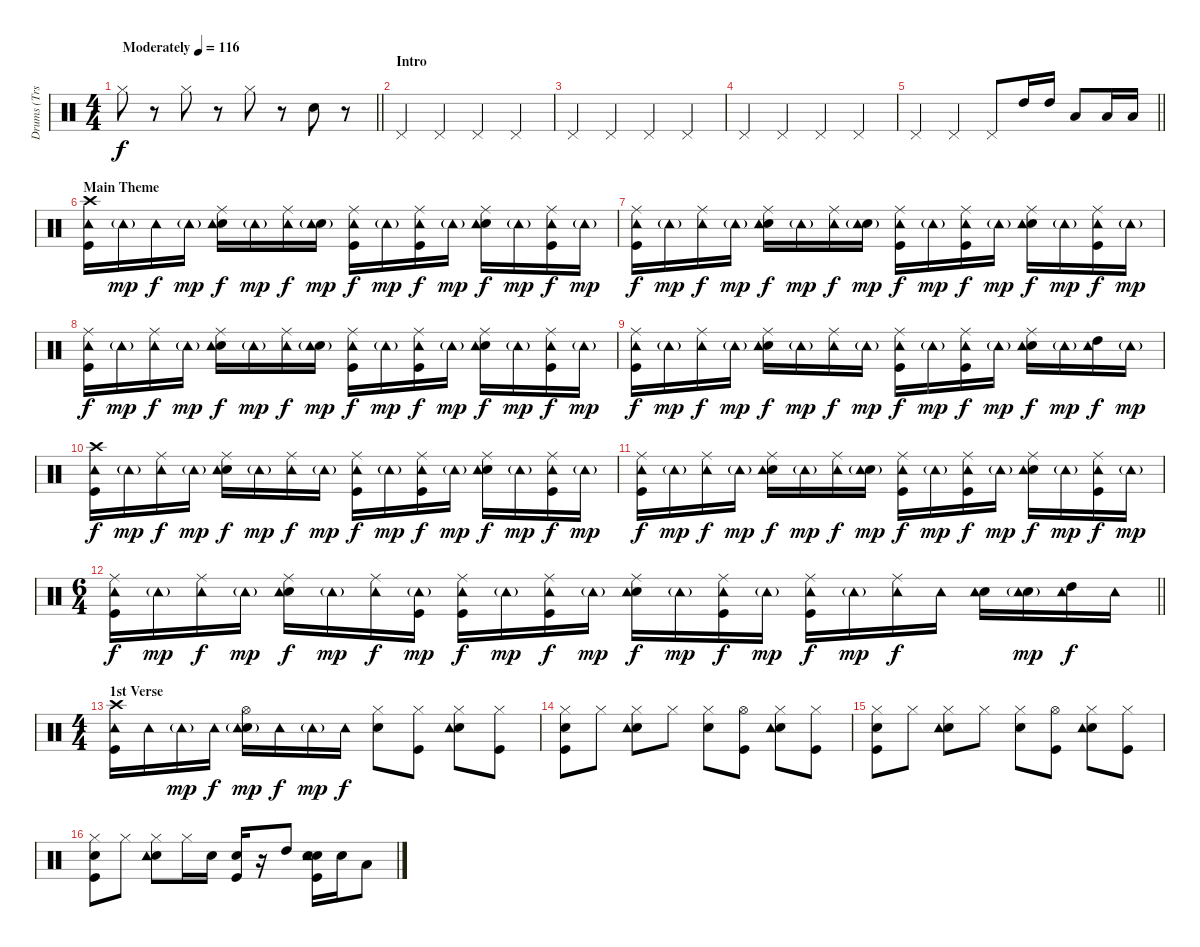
\track ("Drums (Trs. 7-8A, 10A/7-8B, 10B, 12-13B)" "Drums (Trs") {mute instrument percussion}
\staff {score}
\articulation defaults
\ts (4 4)
\tempo (116 "Moderately")
\clef neutral
\barLineRight lightlight
\ks c "Hi-Hat (closed)".8{dy f}
r.8 "Hi-Hat (closed)".8 r.8 "Hi-Hat (closed)".8 r.8 "Electric Snare (hit)".8 r.8 |
\section ("" "Intro")
"Pedal Hi-Hat (hit)".4 "Pedal Hi-Hat (hit)".4 "Pedal Hi-Hat (hit)".4 "Pedal Hi-Hat (hit)".4 |
"Pedal Hi-Hat (hit)".4 "Pedal Hi-Hat (hit)".4 "Pedal Hi-Hat (hit)".4 "Pedal Hi-Hat (hit)".4 |
"Pedal Hi-Hat (hit)".4 "Pedal Hi-Hat (hit)".4 "Pedal Hi-Hat (hit)".4 "Pedal Hi-Hat (hit)".4 |
\barLineRight lightlight "Pedal Hi-Hat (hit)".4 "Pedal Hi-Hat (hit)".4 "Pedal Hi-Hat (hit)".8 "High Tom (hit)".16 "High Tom (hit)".16 "Low Tom (hit)".8 "Low Tom (hit)".16 "Low Tom (hit)".16
|
\section ("" "Main Theme")
("Crash high (hit)" "Kick (hit)" "Tambourine (hit)").16 "Tambourine (hit)"{g}.16{dy mp} "Tambourine (hit)".16{dy f} "Tambourine (hit)"{g}.16{dy mp} ("Ride (middle)" "Electric Snare (hit)" "Tambourine (hit)").16{dy f} "Tambourine (hit)"{g}.16{dy mp} ("Ride (middle)" "Tambourine (hit)").16{dy f} ("Electric Snare (hit)" "Tambourine (hit)"{g}).16{dy mp} ("Kick (hit)" "Ride (middle)" "Tambourine (hit)").16{dy f} "Tambourine (hit)"{g}.16{dy mp} ("Ride (middle)" "Kick (hit)" "Tambourine (hit)").16{dy f} "Tambourine (hit)"{g}.16{dy mp} ("Electric Snare (hit)" "Ride (middle)" "Tambourine (hit)").16{dy f} "Tambourine (hit)"{g}.16{dy mp} ("Ride (middle)" "Kick (hit)" "Tambourine (hit)").16{dy f} "Tambourine (hit)"{g}.16{dy mp} |
("Kick (hit)" "Ride (middle)" "Tambourine (hit)").16{dy f} "Tambourine (hit)"{g}.16{dy mp} ("Ride (middle)" "Tambourine (hit)").16{dy f} "Tambourine (hit)"{g}.16{dy mp} ("Electric Snare (hit)" "Ride (middle)" "Tambourine (hit)").16{dy f} "Tambourine (hit)"{g}.16{dy mp} ("Ride (middle)" "Tambourine (hit)").16{dy f} ("Electric Snare (hit)" "Tambourine (hit)"{g}).16{dy mp} ("Kick (hit)" "Ride (middle)" "Tambourine (hit)").16{dy f} "Tambourine (hit)"{g}.16{dy mp} ("Ride (middle)" "Kick (hit)" "Tambourine (hit)").16{dy f} "Tambourine (hit)"{g}.16{dy mp} ("Ride (middle)" "Electric Snare (hit)" "Tambourine (hit)").16{dy f} "Tambourine (hit)"{g}.16{dy mp} ("Ride (middle)" "Kick (hit)" "Tambourine (hit)").16{dy f} "Tambourine (hit)"{g}.16{dy mp} |
("Ride (middle)" "Kick (hit)" "Tambourine (hit)").16{dy f} "Tambourine (hit)"{g}.16{dy mp} ("Ride (middle)" "Tambourine (hit)").16{dy f} "Tambourine (hit)"{g}.16{dy mp} ("Ride (middle)" "Electric Snare (hit)" "Tambourine (hit)").16{dy f} "Tambourine (hit)"{g}.16{dy mp} ("Ride (middle)" "Tambourine (hit)").16{dy f} ("Electric Snare (hit)" "Tambourine (hit)"{g}).16{dy mp} ("Ride (middle)" "Kick (hit)" "Tambourine (hit)").16{dy f} "Tambourine (hit)"{g}.16{dy mp} ("Ride (middle)" "Kick (hit)" "Tambourine (hit)").16{dy f} "Tambourine (hit)"{g}.16{dy mp} ("Electric Snare (hit)" "Ride (middle)" "Tambourine (hit)").16{dy f} "Tambourine (hit)"{g}.16{dy mp} ("Ride (middle)" "Kick (hit)" "Tambourine (hit)").16{dy f} "Tambourine (hit)"{g}.16{dy mp} |
("Ride (middle)" "Kick (hit)" "Tambourine (hit)").16{dy f} "Tambourine (hit)"{g}.16{dy mp} ("Ride (middle)" "Tambourine (hit)").16{dy f} "Tambourine (hit)"{g}.16{dy mp} ("Electric Snare (hit)" "Ride (middle)" "Tambourine (hit)").16{dy f} "Tambourine (hit)"{g}.16{dy mp} ("Ride (middle)" "Tambourine (hit)").16{dy f} "Tambourine (hit)"{g}.16{dy mp} ("Kick (hit)" "Ride (middle)" "Tambourine (hit)").16{dy f} "Tambourine (hit)"{g}.16{dy mp} ("Kick (hit)" "Ride (middle)" "Tambourine (hit)").16{dy f} "Tambourine (hit)"{g}.16{dy mp} ("Electric Snare (hit)" "Ride (middle)" "Tambourine (hit)").16{dy f} "Tambourine (hit)"{g}.16{dy mp} ("High Tom (hit)" "Tambourine (hit)").16{dy f} "Tambourine (hit)"{g}.16{dy mp} |
("Crash high (hit)" "Kick (hit)" "Tambourine (hit)").16{dy f} "Tambourine (hit)"{g}.16{dy mp} ("Ride (middle)" "Tambourine (hit)").16{dy f} "Tambourine (hit)"{g}.16{dy mp} ("Electric Snare (hit)" "Ride (middle)" "Tambourine (hit)").16{dy f} "Tambourine (hit)"{g}.16{dy mp} ("Ride (middle)" "Tambourine (hit)").16{dy f} "Tambourine (hit)"{g}.16{dy mp} ("Kick (hit)" "Ride (middle)" "Tambourine (hit)").16{dy f} "Tambourine (hit)"{g}.16{dy mp} ("Ride (middle)" "Kick (hit)" "Tambourine (hit)").16{dy f} "Tambourine (hit)"{g}.16{dy mp} ("Ride (middle)" "Electric Snare (hit)" "Tambourine (hit)").16{dy f} "Tambourine (hit)"{g}.16{dy mp} ("Kick (hit)" "Ride (middle)" "Tambourine (hit)").16{dy f} "Tambourine (hit)"{g}.16{dy mp} |
("Ride (middle)" "Kick (hit)" "Tambourine (hit)").16{dy f} "Tambourine (hit)"{g}.16{dy mp} ("Ride (middle)" "Tambourine (hit)").16{dy f} "Tambourine (hit)"{g}.16{dy mp} ("Electric Snare (hit)" "Ride (middle)" "Tambourine (hit)").16{dy f} "Tambourine (hit)"{g}.16{dy mp} ("Ride (middle)" "Tambourine (hit)").16{dy f} ("Electric Snare (hit)" "Tambourine (hit)"{g}).16{dy mp} ("Ride (middle)" "Kick (hit)" "Tambourine (hit)").16{dy f} "Tambourine (hit)"{g}.16{dy mp} ("Kick (hit)" "Ride (middle)" "Tambourine (hit)").16{dy f} "Tambourine (hit)"{g}.16{dy mp} ("Ride (middle)" "Electric Snare (hit)" "Tambourine (hit)").16{dy f} "Tambourine (hit)"{g}.16{dy mp} ("Kick (hit)" "Ride (middle)" "Tambourine (hit)").16{dy f} "Tambourine (hit)"{g}.16{dy mp} |
\ts (6 4)
\barLineRight lightlight
("Ride (middle)" "Kick (hit)" "Tambourine (hit)").16{dy f} "Tambourine (hit)"{g}.16{dy mp} ("Ride (middle)" "Tambourine (hit)").16{dy f} "Tambourine (hit)"{g}.16{dy mp} ("Electric Snare (hit)" "Ride (middle)" "Tambourine (hit)").16{dy f} "Tambourine (hit)"{g}.16{dy mp} ("Ride (middle)" "Tambourine (hit)").16{dy f} ("Kick (hit)" "Tambourine (hit)"{g}).16{dy mp} ("Kick (hit)" "Ride (middle)" "Tambourine (hit)").16{dy f} "Tambourine (hit)"{g}.16{dy mp} ("Ride (middle)" "Kick (hit)" "Tambourine (hit)").16{dy f} "Tambourine (hit)"{g}.16{dy mp} ("Ride (middle)" "Electric Snare (hit)" "Tambourine (hit)").16{dy f} "Tambourine (hit)"{g}.16{dy mp} ("Ride (middle)" "Kick (hit)" "Tambourine (hit)").16{dy f} "Tambourine (hit)"{g}.16{dy mp} ("Ride (middle)" "Kick (hit)" "Tambourine (hit)").16{dy f} "Tambourine (hit)"{g}.16{dy mp} ("Ride (middle)" "Tambourine (hit)").16{dy f} "Tambourine (hit)".16 ("Electric Snare (hit)" "Tambourine (hit)").16 ("Electric Snare (hit)" "Tambourine (hit)"{g}).16{dy mp} ("High Tom (hit)" "Tambourine (hit)").16{dy f} "Tambourine (hit)".16 |
\ts (4 4)
\section ("" "1st Verse")
("Kick (hit)" "Crash high (hit)" "Tambourine (hit)").16 "Tambourine (hit)".16 "Tambourine (hit)"{g}.16{dy mp} "Tambourine (hit)".16{dy f} ("Hi-Hat (open)" "Electric Snare (hit)" "Tambourine (hit)"{g}).16{dy mp} "Tambourine (hit)".16{dy f} "Tambourine (hit)"{g}.16{dy mp} "Tambourine (hit)".16{dy f} ("Hi-Hat (closed)" "Electric Snare (hit)").8 ("Kick (hit)" "Hi-Hat (closed)").8 ("Hi-Hat (closed)" "Electric Snare (hit)" "Tambourine (hit)").8 ("Hi-Hat (closed)" "Kick (hit)").8 |
("Hi-Hat (closed)" "Electric Snare (hit)" "Kick (hit)").8 "Hi-Hat (closed)".8 ("Hi-Hat (closed)" "Electric Snare (hit)" "Tambourine (hit)").8 "Hi-Hat (closed)".8 ("Hi-Hat (closed)" "Electric Snare (hit)").8 ("Kick (hit)" "Hi-Hat (open)").8 ("Hi-Hat (closed)" "Electric Snare (hit)" "Tambourine (hit)").8 ("Hi-Hat (closed)" "Kick (hit)").8 |
("Hi-Hat (closed)" "Electric Snare (hit)" "Kick (hit)").8 "Hi-Hat (closed)".8 ("Hi-Hat (closed)" "Electric Snare (hit)" "Tambourine (hit)").8 "Hi-Hat (closed)".8 ("Electric Snare (hit)" "Hi-Hat (closed)").8 ("Kick (hit)" "Hi-Hat (open)").8 ("Hi-Hat (closed)" "Electric Snare (hit)" "Tambourine (hit)").8 ("Kick (hit)" "Hi-Hat (closed)").8 |
("Hi-Hat (closed)" "Kick (hit)" "Electric Snare (hit)").8 "Hi-Hat (closed)".8 ("Electric Snare (hit)" "Hi-Hat (closed)" "Tambourine (hit)").8 "Hi-Hat (closed)".16 "Electric Snare (hit)".16 ("Electric Snare (hit)" "Kick (hit)").16 r.16 "High Tom (hit)".8 ("Snare (hit) 2" "Kick (hit)" "Electric Snare (hit)" "Tambourine (hit)").16 "Electric Snare (hit)".16 "Low Tom (hit)".8
